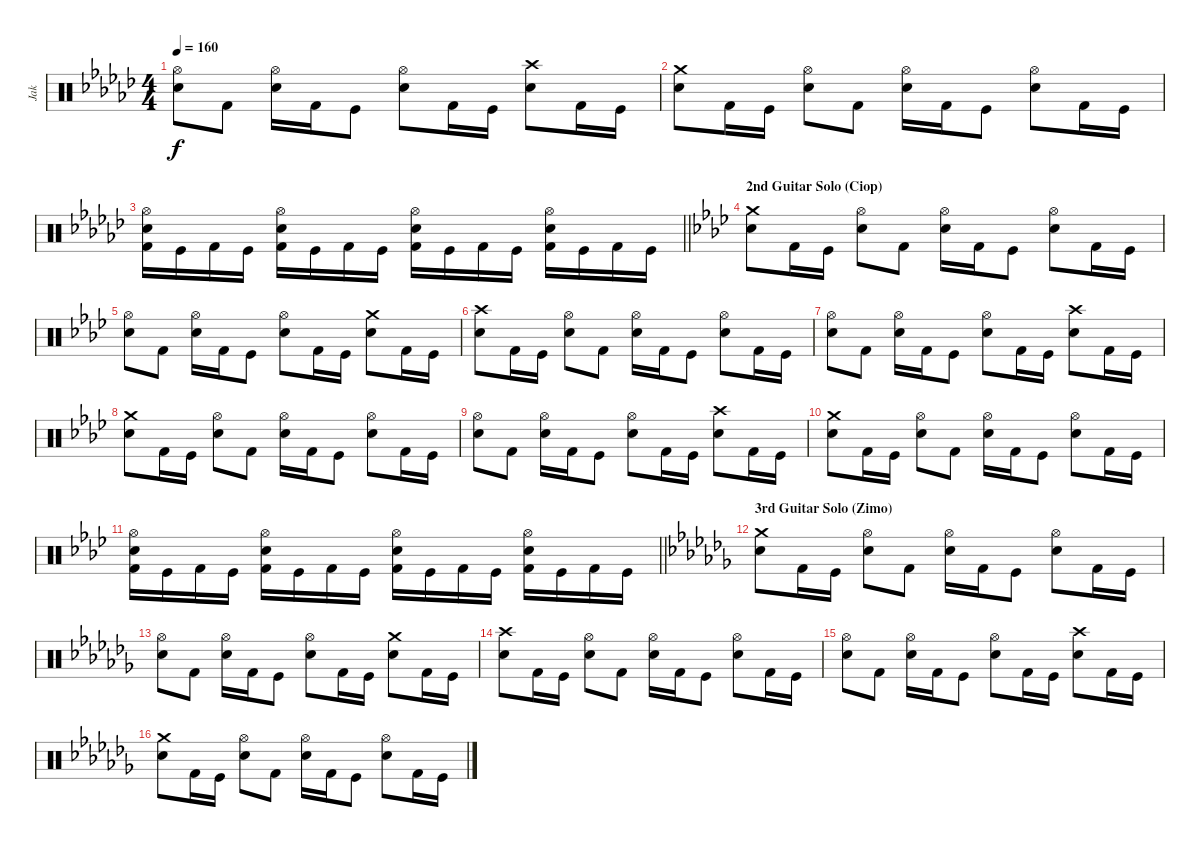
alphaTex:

\track ("Jak" "Jak") {instrument percussion}
\staff {score}
\articulation defaults
\ts (4 4)
\tempo 160
\clef neutral
\ks ebminor
("Hi-Hat (open)" "Snare (hit) 2").8{dy f} "Kick (hit) 2".8 ("Hi-Hat (open)" "Snare (hit) 2").16 "Kick (hit) 2".16 "Kick (hit)".8 ("Hi-Hat (open)" "Snare (hit) 2").8 "Kick (hit) 2".16 "Kick (hit)".16 ("Crash high (hit)" "Snare (hit) 2").8 "Kick (hit) 2".16 "Kick (hit)".16 |
("Crash medium (hit)" "Snare (hit) 2").8 "Kick (hit) 2".16 "Kick (hit)".16 ("Hi-Hat (open)" "Snare (hit) 2").8 "Kick (hit) 2".8 ("Hi-Hat (open)" "Snare (hit) 2").16 "Kick (hit) 2".16 "Kick (hit)".8 ("Hi-Hat (open)" "Snare (hit) 2").8 "Kick (hit) 2".16 "Kick (hit)".16 |
\barLineRight lightlight
("Hi-Hat (open)" "Snare (hit) 2" "Kick (hit) 2").16 "Kick (hit)".16 "Kick (hit) 2".16 "Kick (hit)".16 ("Hi-Hat (open)" "Snare (hit) 2" "Kick (hit) 2").16 "Kick (hit)".16 "Kick (hit) 2".16 "Kick (hit)".16 ("Hi-Hat (open)" "Snare (hit) 2" "Kick (hit) 2").16 "Kick (hit)".16 "Kick (hit) 2".16 "Kick (hit)".16 ("Hi-Hat (open)" "Snare (hit) 2" "Kick (hit) 2").16 "Kick (hit)".16 "Kick (hit) 2".16 "Kick (hit)".16 |
\section ("" "2nd Guitar Solo (Ciop)")
\ks fminor
("Crash medium (hit)" "Snare (hit) 2").8 "Kick (hit) 2".16 "Kick (hit)".16 ("Hi-Hat (open)" "Snare (hit) 2").8 "Kick (hit) 2".8 ("Hi-Hat (open)" "Snare (hit) 2").16 "Kick (hit) 2".16 "Kick (hit)".8 ("Hi-Hat (open)" "Snare (hit) 2").8 "Kick (hit) 2".16 "Kick (hit)".16 |
("Hi-Hat (open)" "Snare (hit) 2").8 "Kick (hit) 2".8 ("Hi-Hat (open)" "Snare (hit) 2").16 "Kick (hit) 2".16 "Kick (hit)".8 ("Hi-Hat (open)" "Snare (hit) 2").8 "Kick (hit) 2".16 "Kick (hit)".16 ("Crash medium (hit)" "Snare (hit) 2").8 "Kick (hit) 2".16 "Kick (hit)".16 |
("Crash high (hit)" "Snare (hit) 2").8 "Kick (hit) 2".16 "Kick (hit)".16 ("Hi-Hat (open)" "Snare (hit) 2").8 "Kick (hit) 2".8 ("Hi-Hat (open)" "Snare (hit) 2").16 "Kick (hit) 2".16 "Kick (hit)".8 ("Hi-Hat (open)" "Snare (hit) 2").8 "Kick (hit) 2".16 "Kick (hit)".16 |
("Hi-Hat (open)" "Snare (hit) 2").8 "Kick (hit) 2".8 ("Hi-Hat (open)" "Snare (hit) 2").16 "Kick (hit) 2".16 "Kick (hit)".8 ("Hi-Hat (open)" "Snare (hit) 2").8 "Kick (hit) 2".16 "Kick (hit)".16 ("Crash high (hit)" "Snare (hit) 2").8 "Kick (hit) 2".16 "Kick (hit)".16 |
("Crash medium (hit)" "Snare (hit) 2").8 "Kick (hit) 2".16 "Kick (hit)".16 ("Hi-Hat (open)" "Snare (hit) 2").8 "Kick (hit) 2".8 ("Hi-Hat (open)" "Snare (hit) 2").16 "Kick (hit) 2".16 "Kick (hit)".8 ("Hi-Hat (open)" "Snare (hit) 2").8 "Kick (hit) 2".16 "Kick (hit)".16 |
("Hi-Hat (open)" "Snare (hit) 2").8 "Kick (hit) 2".8 ("Hi-Hat (open)" "Snare (hit) 2").16 "Kick (hit) 2".16 "Kick (hit)".8 ("Hi-Hat (open)" "Snare (hit) 2").8 "Kick (hit) 2".16 "Kick (hit)".16 ("Crash high (hit)" "Snare (hit) 2").8 "Kick (hit) 2".16 "Kick (hit)".16 |
("Crash medium (hit)" "Snare (hit) 2").8 "Kick (hit) 2".16 "Kick (hit)".16 ("Hi-Hat (open)" "Snare (hit) 2").8 "Kick (hit) 2".8 ("Hi-Hat (open)" "Snare (hit) 2").16 "Kick (hit) 2".16 "Kick (hit)".8 ("Hi-Hat (open)" "Snare (hit) 2").8 "Kick (hit) 2".16 "Kick (hit)".16 |
\barLineRight lightlight
("Hi-Hat (open)" "Snare (hit) 2" "Kick (hit) 2").16 "Kick (hit)".16 "Kick (hit) 2".16 "Kick (hit)".16 ("Hi-Hat (open)" "Snare (hit) 2" "Kick (hit) 2").16 "Kick (hit)".16 "Kick (hit) 2".16 "Kick (hit)".16 ("Hi-Hat (open)" "Snare (hit) 2" "Kick (hit) 2").16 "Kick (hit)".16 "Kick (hit) 2".16 "Kick (hit)".16 ("Hi-Hat (open)" "Snare (hit) 2" "Kick (hit) 2").16 "Kick (hit)".16 "Kick (hit) 2".16 "Kick (hit)".16 |
\section ("" "3rd Guitar Solo (Zimo)")
\ks abminor
("Crash medium (hit)" "Snare (hit) 2").8 "Kick (hit) 2".16 "Kick (hit)".16 ("Hi-Hat (open)" "Snare (hit) 2").8 "Kick (hit) 2".8 ("Hi-Hat (open)" "Snare (hit) 2").16 "Kick (hit) 2".16 "Kick (hit)".8 ("Hi-Hat (open)" "Snare (hit) 2").8 "Kick (hit) 2".16 "Kick (hit)".16 |
("Hi-Hat (open)" "Snare (hit) 2").8 "Kick (hit) 2".8 ("Hi-Hat (open)" "Snare (hit) 2").16 "Kick (hit) 2".16 "Kick (hit)".8 ("Hi-Hat (open)" "Snare (hit) 2").8 "Kick (hit) 2".16 "Kick (hit)".16 ("Crash medium (hit)" "Snare (hit) 2").8 "Kick (hit) 2".16 "Kick (hit)".16 |
("Crash high (hit)" "Snare (hit) 2").8 "Kick (hit) 2".16 "Kick (hit)".16 ("Hi-Hat (open)" "Snare (hit) 2").8 "Kick (hit) 2".8 ("Hi-Hat (open)" "Snare (hit) 2").16 "Kick (hit) 2".16 "Kick (hit)".8 ("Hi-Hat (open)" "Snare (hit) 2").8 "Kick (hit) 2".16 "Kick (hit)".16 |
("Hi-Hat (open)" "Snare (hit) 2").8 "Kick (hit) 2".8 ("Hi-Hat (open)" "Snare (hit) 2").16 "Kick (hit) 2".16 "Kick (hit)".8 ("Hi-Hat (open)" "Snare (hit) 2").8 "Kick (hit) 2".16 "Kick (hit)".16 ("Crash high (hit)" "Snare (hit) 2").8 "Kick (hit) 2".16 "Kick (hit)".16 |
("Crash medium (hit)" "Snare (hit) 2").8 "Kick (hit) 2".16 "Kick (hit)".16 ("Hi-Hat (open)" "Snare (hit) 2").8 "Kick (hit) 2".8 ("Hi-Hat (open)" "Snare (hit) 2").16 "Kick (hit) 2".16 "Kick (hit)".8 ("Hi-Hat (open)" "Snare (hit) 2").8 "Kick (hit) 2".16 "Kick (hit)".16
